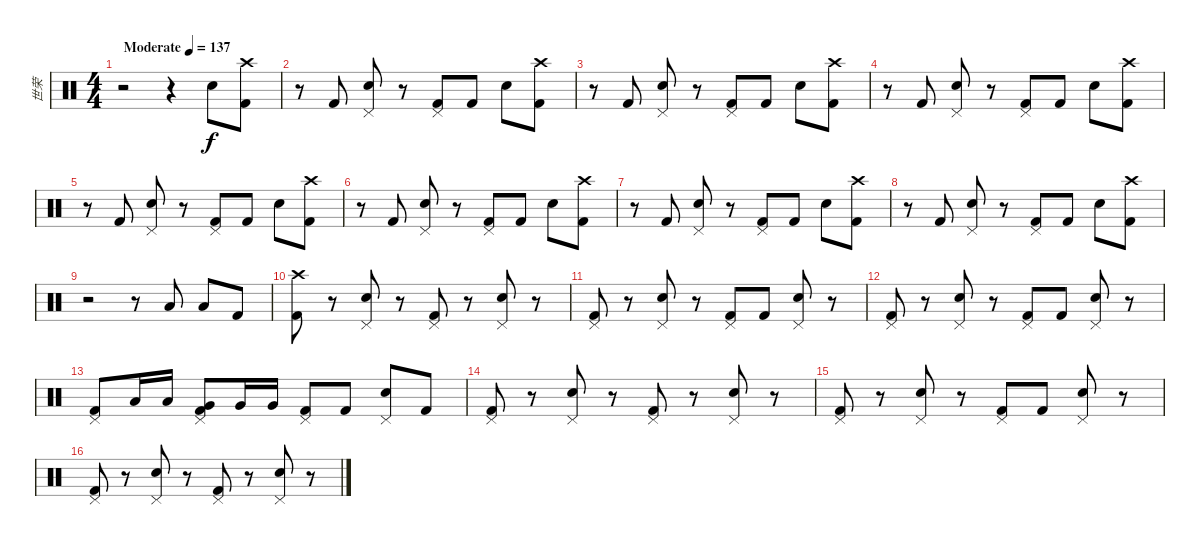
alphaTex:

\track ("世荣" "世荣") {instrument percussion}
\staff {score}
\articulation defaults
\ts (4 4)
\tempo (137 "Moderate")
\clef neutral
\ks c
r.2{dy f} r.4 "Electric Snare (hit)".8 ("Crash high (hit)" "Kick (hit) 2").8 |
r.8 "Kick (hit) 2".8 ("Pedal Hi-Hat (hit)" "Electric Snare (hit)").8 r.8 ("Pedal Hi-Hat (hit)" "Kick (hit) 2").8 "Kick (hit) 2".8 "Electric Snare (hit)".8 ("Crash high (hit)" "Kick (hit) 2").8 |
r.8 "Kick (hit) 2".8 ("Pedal Hi-Hat (hit)" "Electric Snare (hit)").8 r.8 ("Pedal Hi-Hat (hit)" "Kick (hit) 2").8 "Kick (hit) 2".8 "Electric Snare (hit)".8 ("Crash high (hit)" "Kick (hit) 2").8 |
r.8 "Kick (hit) 2".8 ("Pedal Hi-Hat (hit)" "Electric Snare (hit)").8 r.8 ("Pedal Hi-Hat (hit)" "Kick (hit) 2").8 "Kick (hit) 2".8 "Electric Snare (hit)".8 ("Crash high (hit)" "Kick (hit) 2").8 |
r.8 "Kick (hit) 2".8 ("Pedal Hi-Hat (hit)" "Electric Snare (hit)").8 r.8 ("Pedal Hi-Hat (hit)" "Kick (hit) 2").8 "Kick (hit) 2".8 "Electric Snare (hit)".8 ("Crash high (hit)" "Kick (hit) 2").8 |
r.8 "Kick (hit) 2".8 ("Pedal Hi-Hat (hit)" "Electric Snare (hit)").8 r.8 ("Pedal Hi-Hat (hit)" "Kick (hit) 2").8 "Kick (hit) 2".8 "Electric Snare (hit)".8 ("Crash high (hit)" "Kick (hit) 2").8 |
r.8 "Kick (hit) 2".8 ("Pedal Hi-Hat (hit)" "Electric Snare (hit)").8 r.8 ("Pedal Hi-Hat (hit)" "Kick (hit) 2").8 "Kick (hit) 2".8 "Electric Snare (hit)".8 ("Crash high (hit)" "Kick (hit) 2").8 |
r.8 "Kick (hit) 2".8 ("Pedal Hi-Hat (hit)" "Electric Snare (hit)").8 r.8 ("Pedal Hi-Hat (hit)" "Kick (hit) 2").8 "Kick (hit) 2".8 "Electric Snare (hit)".8 ("Crash high (hit)" "Kick (hit) 2").8 |
r.2 r.8 "Low Tom (hit)".8 "Low Tom (hit)".8 "Kick (hit) 2".8 |
("Crash high (hit)" "Kick (hit) 2").8 r.8 ("Pedal Hi-Hat (hit)" "Electric Snare (hit)").8 r.8 ("Pedal Hi-Hat (hit)" "Kick (hit) 2").8 r.8 ("Pedal Hi-Hat (hit)" "Electric Snare (hit)").8 r.8 |
("Pedal Hi-Hat (hit)" "Kick (hit) 2").8 r.8 ("Pedal Hi-Hat (hit)" "Electric Snare (hit)").8 r.8 ("Pedal Hi-Hat (hit)" "Kick (hit) 2").8 "Kick (hit) 2".8 ("Pedal Hi-Hat (hit)" "Electric Snare (hit)").8 r.8 |
("Pedal Hi-Hat (hit)" "Kick (hit) 2").8 r.8 ("Pedal Hi-Hat (hit)" "Electric Snare (hit)").8 r.8 ("Pedal Hi-Hat (hit)" "Kick (hit) 2").8 "Kick (hit) 2".8 ("Pedal Hi-Hat (hit)" "Electric Snare (hit)").8 r.8 |
("Pedal Hi-Hat (hit)" "Kick (hit) 2").8 "Low Tom (hit)".16 "Low Tom (hit)".16 ("Pedal Hi-Hat (hit)" "Very Low Tom (hit)" "Kick (hit) 2").8 "Very Low Tom (hit)".16 "Very Low Tom (hit)".16 ("Pedal Hi-Hat (hit)" "Kick (hit) 2").8 "Kick (hit) 2".8 ("Pedal Hi-Hat (hit)" "Electric Snare (hit)").8 "Kick (hit) 2".8 |
("Pedal Hi-Hat (hit)" "Kick (hit) 2").8 r.8 ("Pedal Hi-Hat (hit)" "Electric Snare (hit)").8 r.8 ("Pedal Hi-Hat (hit)" "Kick (hit) 2").8 r.8 ("Pedal Hi-Hat (hit)" "Electric Snare (hit)").8 r.8 |
("Pedal Hi-Hat (hit)" "Kick (hit) 2").8 r.8 ("Pedal Hi-Hat (hit)" "Electric Snare (hit)").8 r.8 ("Pedal Hi-Hat (hit)" "Kick (hit) 2").8 "Kick (hit) 2".8 ("Pedal Hi-Hat (hit)" "Electric Snare (hit)").8 r.8 |
("Pedal Hi-Hat (hit)" "Kick (hit) 2").8 r.8 ("Pedal Hi-Hat (hit)" "Electric Snare (hit)").8 r.8 ("Pedal Hi-Hat (hit)" "Kick (hit) 2").8 r.8 ("Pedal Hi-Hat (hit)" "Electric Snare (hit)").8 r.8
